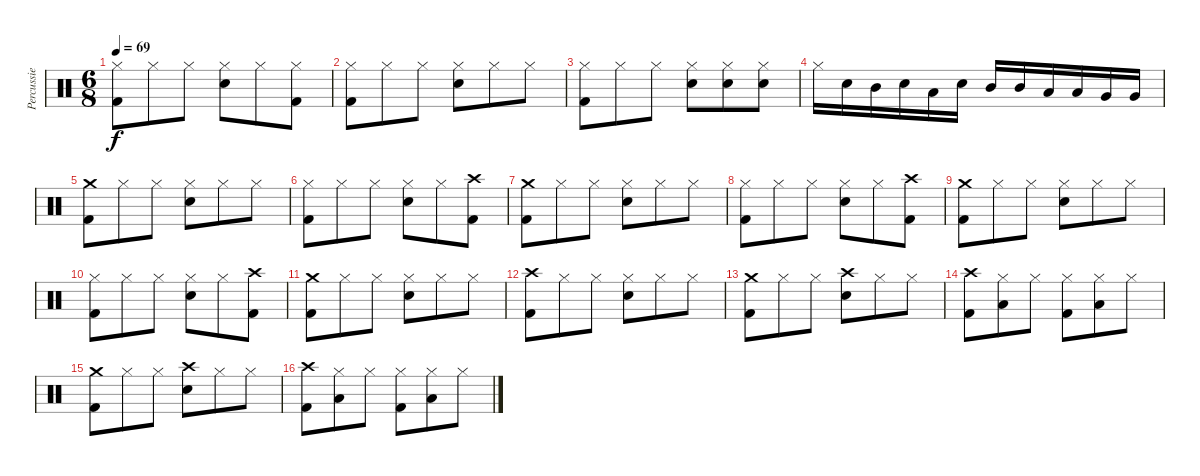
\track ("Percussie" "Percussie") {instrument percussion}
\staff {score}
\articulation defaults
\ts (6 8)
\tempo 69
\clef neutral
\ks c
("Hi-Hat (closed)" "Kick (hit) 2").8{dy f} "Hi-Hat (closed)".8 "Hi-Hat (closed)".8 ("Hi-Hat (closed)" "Snare (hit) 2").8 "Hi-Hat (closed)".8 ("Hi-Hat (closed)" "Kick (hit) 2").8 |
("Hi-Hat (closed)" "Kick (hit) 2").8 "Hi-Hat (closed)".8 "Hi-Hat (closed)".8 ("Hi-Hat (closed)" "Snare (hit) 2").8 "Hi-Hat (closed)".8 "Hi-Hat (closed)".8 |
("Hi-Hat (closed)" "Kick (hit) 2").8 "Hi-Hat (closed)".8 "Hi-Hat (closed)".8 ("Hi-Hat (closed)" "Snare (hit) 2").8 ("Hi-Hat (closed)" "Snare (hit) 2").8 ("Hi-Hat (closed)" "Snare (hit) 2").8 |
"Hi-Hat (closed)".16 "Snare (hit) 2".16 "Mid Tom (hit)".16 "Snare (hit) 2".16 "Low Tom (hit)".16 "Snare (hit) 2".16 "Mid Tom (hit)".16 "Mid Tom (hit)".16 "Low Tom (hit)".16 "Low Tom (hit)".16 "Very Low Tom (hit)".16 "Very Low Tom (hit)".16 |
("Crash medium (hit)" "Kick (hit) 2").8 "Hi-Hat (closed)".8 "Hi-Hat (closed)".8 ("Hi-Hat (closed)" "Snare (hit) 2").8 "Hi-Hat (closed)".8 "Hi-Hat (closed)".8 |
("Hi-Hat (closed)" "Kick (hit) 2").8 "Hi-Hat (closed)".8 "Hi-Hat (closed)".8 ("Hi-Hat (closed)" "Snare (hit) 2").8 "Hi-Hat (closed)".8 ("Crash high (hit)" "Kick (hit) 2").8 |
("Crash medium (hit)" "Kick (hit) 2").8 "Hi-Hat (closed)".8 "Hi-Hat (closed)".8 ("Hi-Hat (closed)" "Snare (hit) 2").8 "Hi-Hat (closed)".8 "Hi-Hat (closed)".8 |
("Hi-Hat (closed)" "Kick (hit) 2").8 "Hi-Hat (closed)".8 "Hi-Hat (closed)".8 ("Hi-Hat (closed)" "Snare (hit) 2").8 "Hi-Hat (closed)".8 ("Crash high (hit)" "Kick (hit) 2").8 |
("Crash medium (hit)" "Kick (hit) 2").8 "Hi-Hat (closed)".8 "Hi-Hat (closed)".8 ("Hi-Hat (closed)" "Snare (hit) 2").8 "Hi-Hat (closed)".8 "Hi-Hat (closed)".8 |
("Hi-Hat (closed)" "Kick (hit) 2").8 "Hi-Hat (closed)".8 "Hi-Hat (closed)".8 ("Hi-Hat (closed)" "Snare (hit) 2").8 "Hi-Hat (closed)".8 ("Crash high (hit)" "Kick (hit) 2").8 |
("Crash medium (hit)" "Kick (hit) 2").8 "Hi-Hat (closed)".8 "Hi-Hat (closed)".8 ("Hi-Hat (closed)" "Snare (hit) 2").8 "Hi-Hat (closed)".8 "Hi-Hat (closed)".8 |
("Crash high (hit)" "Kick (hit) 2").8 "Hi-Hat (closed)".8 "Hi-Hat (closed)".8 ("Hi-Hat (closed)" "Snare (hit) 2").8 "Hi-Hat (closed)".8 "Hi-Hat (closed)".8 |
("Crash medium (hit)" "Kick (hit) 2").8 "Hi-Hat (closed)".8 "Hi-Hat (closed)".8 ("Crash high (hit)" "Snare (hit) 2").8 "Hi-Hat (closed)".8 "Hi-Hat (closed)".8 |
("Crash high (hit)" "Kick (hit) 2").8 ("Hi-Hat (closed)" "Low Tom (hit)").8 "Hi-Hat (closed)".8 ("Hi-Hat (closed)" "Kick (hit) 2").8 ("Hi-Hat (closed)" "Low Tom (hit)").8 "Hi-Hat (closed)".8 |
("Crash medium (hit)" "Kick (hit) 2").8 "Hi-Hat (closed)".8 "Hi-Hat (closed)".8 ("Crash high (hit)" "Snare (hit) 2").8 "Hi-Hat (closed)".8 "Hi-Hat (closed)".8 |
("Crash high (hit)" "Kick (hit) 2").8 ("Hi-Hat (closed)" "Low Tom (hit)").8 "Hi-Hat (closed)".8 ("Hi-Hat (closed)" "Kick (hit) 2").8 ("Hi-Hat (closed)" "Low Tom (hit)").8 "Hi-Hat (closed)".8
